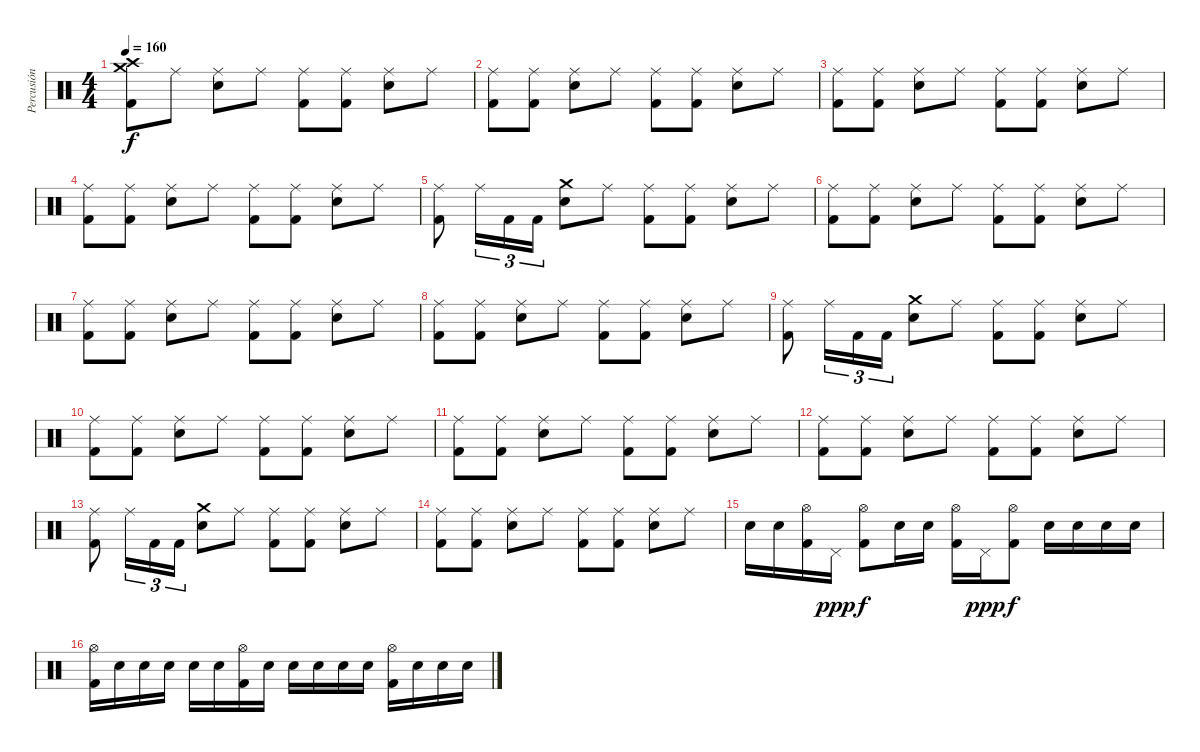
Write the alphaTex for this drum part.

\track ("Percusión" "Percusión") {instrument percussion}
\staff {score}
\articulation defaults
\ts (4 4)
\tempo 160
\clef neutral
\ks c
("Crash medium (hit)" "Crash high (hit)" "Kick (hit) 2").8{dy f} "Ride (middle)".8 ("Ride (middle)" "Electric Snare (hit)").8 "Ride (middle)".8 ("Ride (middle)" "Kick (hit) 2").8 ("Ride (middle)" "Kick (hit) 2").8 ("Ride (middle)" "Electric Snare (hit)").8 "Ride (middle)".8 |
("Ride (middle)" "Kick (hit) 2").8 ("Ride (middle)" "Kick (hit) 2").8 ("Ride (middle)" "Electric Snare (hit)").8 "Ride (middle)".8 ("Ride (middle)" "Kick (hit) 2").8 ("Ride (middle)" "Kick (hit) 2").8 ("Ride (middle)" "Electric Snare (hit)").8 "Ride (middle)".8 |
("Ride (middle)" "Kick (hit) 2").8 ("Ride (middle)" "Kick (hit) 2").8 ("Ride (middle)" "Electric Snare (hit)").8 "Ride (middle)".8 ("Ride (middle)" "Kick (hit) 2").8 ("Ride (middle)" "Kick (hit) 2").8 ("Ride (middle)" "Electric Snare (hit)").8 "Ride (middle)".8 |
("Ride (middle)" "Kick (hit) 2").8 ("Ride (middle)" "Kick (hit) 2").8 ("Ride (middle)" "Electric Snare (hit)").8 "Ride (middle)".8 ("Ride (middle)" "Kick (hit) 2").8 ("Ride (middle)" "Kick (hit) 2").8 ("Ride (middle)" "Electric Snare (hit)").8 "Ride (middle)".8 |
("Ride (middle)" "Kick (hit) 2").8 "Ride (middle)".16{tu (3 2)} "Kick (hit) 2".16{tu (3 2)} "Kick (hit) 2".16{tu (3 2)} ("Crash medium (hit)" "Electric Snare (hit)").8 "Ride (middle)".8 ("Ride (middle)" "Kick (hit) 2").8 ("Ride (middle)" "Kick (hit) 2").8 ("Ride (middle)" "Electric Snare (hit)").8 "Ride (middle)".8 |
("Ride (middle)" "Kick (hit) 2").8 ("Ride (middle)" "Kick (hit) 2").8 ("Ride (middle)" "Electric Snare (hit)").8 "Ride (middle)".8 ("Ride (middle)" "Kick (hit) 2").8 ("Ride (middle)" "Kick (hit) 2").8 ("Ride (middle)" "Electric Snare (hit)").8 "Ride (middle)".8 |
("Ride (middle)" "Kick (hit) 2").8 ("Ride (middle)" "Kick (hit) 2").8 ("Ride (middle)" "Electric Snare (hit)").8 "Ride (middle)".8 ("Ride (middle)" "Kick (hit) 2").8 ("Ride (middle)" "Kick (hit) 2").8 ("Ride (middle)" "Electric Snare (hit)").8 "Ride (middle)".8 |
("Ride (middle)" "Kick (hit) 2").8 ("Ride (middle)" "Kick (hit) 2").8 ("Ride (middle)" "Electric Snare (hit)").8 "Ride (middle)".8 ("Ride (middle)" "Kick (hit) 2").8 ("Ride (middle)" "Kick (hit) 2").8 ("Ride (middle)" "Electric Snare (hit)").8 "Ride (middle)".8 |
("Ride (middle)" "Kick (hit) 2").8 "Ride (middle)".16{tu (3 2)} "Kick (hit) 2".16{tu (3 2)} "Kick (hit) 2".16{tu (3 2)} ("Crash medium (hit)" "Electric Snare (hit)").8 "Ride (middle)".8 ("Ride (middle)" "Kick (hit) 2").8 ("Ride (middle)" "Kick (hit) 2").8 ("Ride (middle)" "Electric Snare (hit)").8 "Ride (middle)".8 |
("Ride (middle)" "Kick (hit) 2").8 ("Ride (middle)" "Kick (hit) 2").8 ("Ride (middle)" "Electric Snare (hit)").8 "Ride (middle)".8 ("Ride (middle)" "Kick (hit) 2").8 ("Ride (middle)" "Kick (hit) 2").8 ("Ride (middle)" "Electric Snare (hit)").8 "Ride (middle)".8 |
("Ride (middle)" "Kick (hit) 2").8 ("Ride (middle)" "Kick (hit) 2").8 ("Ride (middle)" "Electric Snare (hit)").8 "Ride (middle)".8 ("Ride (middle)" "Kick (hit) 2").8 ("Ride (middle)" "Kick (hit) 2").8 ("Ride (middle)" "Electric Snare (hit)").8 "Ride (middle)".8 |
("Ride (middle)" "Kick (hit) 2").8 ("Ride (middle)" "Kick (hit) 2").8 ("Ride (middle)" "Electric Snare (hit)").8 "Ride (middle)".8 ("Ride (middle)" "Kick (hit) 2").8 ("Ride (middle)" "Kick (hit) 2").8 ("Ride (middle)" "Electric Snare (hit)").8 "Ride (middle)".8 |
("Ride (middle)" "Kick (hit) 2").8 "Ride (middle)".16{tu (3 2)} "Kick (hit) 2".16{tu (3 2)} "Kick (hit) 2".16{tu (3 2)} ("Crash medium (hit)" "Electric Snare (hit)").8 "Ride (middle)".8 ("Ride (middle)" "Kick (hit) 2").8 ("Ride (middle)" "Kick (hit) 2").8 ("Ride (middle)" "Electric Snare (hit)").8 "Ride (middle)".8 |
("Ride (middle)" "Kick (hit) 2").8 ("Ride (middle)" "Kick (hit) 2").8 ("Ride (middle)" "Electric Snare (hit)").8 "Ride (middle)".8 ("Ride (middle)" "Kick (hit) 2").8 ("Ride (middle)" "Kick (hit) 2").8 ("Ride (middle)" "Electric Snare (hit)").8 "Ride (middle)".8 |
"Electric Snare (hit)".16 "Electric Snare (hit)".16 ("Hi-Hat (open)" "Kick (hit) 2").16 "Pedal Hi-Hat (hit)".16{dy ppp} ("Hi-Hat (open)" "Kick (hit) 2").8{dy f} "Electric Snare (hit)".16 "Electric Snare (hit)".16 ("Hi-Hat (open)" "Kick (hit) 2").16 "Pedal Hi-Hat (hit)".16{dy ppp} ("Hi-Hat (open)" "Kick (hit) 2").8{dy f} "Electric Snare (hit)".16 "Electric Snare (hit)".16 "Electric Snare (hit)".16 "Electric Snare (hit)".16 |
("Hi-Hat (open)" "Kick (hit) 2").16 "Electric Snare (hit)".16 "Electric Snare (hit)".16 "Electric Snare (hit)".16 "Electric Snare (hit)".16 "Electric Snare (hit)".16 ("Hi-Hat (open)" "Kick (hit) 2").16 "Electric Snare (hit)".16 "Electric Snare (hit)".16 "Electric Snare (hit)".16 "Electric Snare (hit)".16 "Electric Snare (hit)".16 ("Hi-Hat (open)" "Kick (hit) 2").16 "Electric Snare (hit)".16 "Electric Snare (hit)".16 "Electric Snare (hit)".16
